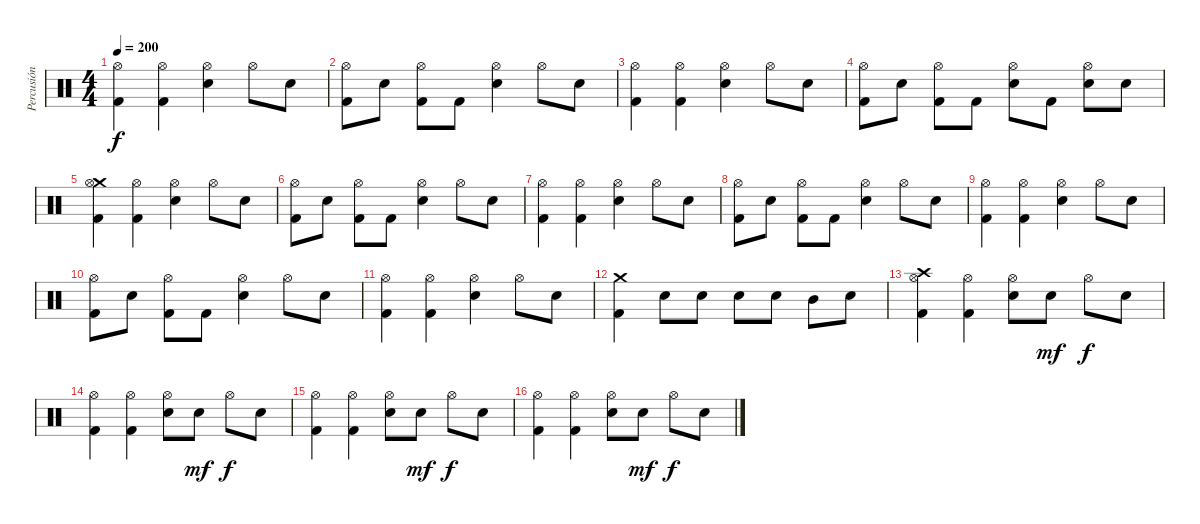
\track ("Percusión" "Percusión") {instrument percussion}
\staff {score}
\articulation defaults
\ts (4 4)
\tempo 200
\clef neutral
\ks c
("Hi-Hat (open)" "Kick (hit) 2").4{dy f} ("Hi-Hat (open)" "Kick (hit) 2").4 ("Hi-Hat (open)" "Electric Snare (hit)").4 "Hi-Hat (open)".8 "Electric Snare (hit)".8 |
("Hi-Hat (open)" "Kick (hit) 2").8 "Electric Snare (hit)".8 ("Hi-Hat (open)" "Kick (hit) 2").8 "Kick (hit) 2".8 ("Hi-Hat (open)" "Electric Snare (hit)").4 "Hi-Hat (open)".8 "Electric Snare (hit)".8 |
("Hi-Hat (open)" "Kick (hit) 2").4 ("Hi-Hat (open)" "Kick (hit) 2").4 ("Hi-Hat (open)" "Electric Snare (hit)").4 "Hi-Hat (open)".8 "Electric Snare (hit)".8 |
("Hi-Hat (open)" "Kick (hit) 2").8 "Electric Snare (hit)".8 ("Hi-Hat (open)" "Kick (hit) 2").8 "Kick (hit) 2".8 ("Hi-Hat (open)" "Electric Snare (hit)").8 "Kick (hit) 2".8 ("Hi-Hat (open)" "Electric Snare (hit)").8 "Electric Snare (hit)".8 |
("Crash medium (hit)" "Hi-Hat (open)" "Kick (hit) 2").4 ("Hi-Hat (open)" "Kick (hit) 2").4 ("Hi-Hat (open)" "Electric Snare (hit)").4 "Hi-Hat (open)".8 "Electric Snare (hit)".8 |
("Hi-Hat (open)" "Kick (hit) 2").8 "Electric Snare (hit)".8 ("Hi-Hat (open)" "Kick (hit) 2").8 "Kick (hit) 2".8 ("Hi-Hat (open)" "Electric Snare (hit)").4 "Hi-Hat (open)".8 "Electric Snare (hit)".8 |
("Hi-Hat (open)" "Kick (hit) 2").4 ("Hi-Hat (open)" "Kick (hit) 2").4 ("Hi-Hat (open)" "Electric Snare (hit)").4 "Hi-Hat (open)".8 "Electric Snare (hit)".8 |
("Hi-Hat (open)" "Kick (hit) 2").8 "Electric Snare (hit)".8 ("Hi-Hat (open)" "Kick (hit) 2").8 "Kick (hit) 2".8 ("Hi-Hat (open)" "Electric Snare (hit)").4 "Hi-Hat (open)".8 "Electric Snare (hit)".8 |
("Hi-Hat (open)" "Kick (hit) 2").4 ("Hi-Hat (open)" "Kick (hit) 2").4 ("Hi-Hat (open)" "Electric Snare (hit)").4 "Hi-Hat (open)".8 "Electric Snare (hit)".8 |
("Hi-Hat (open)" "Kick (hit) 2").8 "Electric Snare (hit)".8 ("Hi-Hat (open)" "Kick (hit) 2").8 "Kick (hit) 2".8 ("Hi-Hat (open)" "Electric Snare (hit)").4 "Hi-Hat (open)".8 "Electric Snare (hit)".8 |
("Hi-Hat (open)" "Kick (hit) 2").4 ("Hi-Hat (open)" "Kick (hit) 2").4 ("Hi-Hat (open)" "Electric Snare (hit)").4 "Hi-Hat (open)".8 "Electric Snare (hit)".8 |
("Crash medium (hit)" "Kick (hit) 2").4 "Electric Snare (hit)".8 "Electric Snare (hit)".8 "Electric Snare (hit)".8 "Electric Snare (hit)".8 "Mid Tom (hit)".8 "Electric Snare (hit)".8 |
("Crash high (hit)" "Hi-Hat (open)" "Kick (hit) 2").4 ("Hi-Hat (open)" "Kick (hit) 2").4 ("Hi-Hat (open)" "Electric Snare (hit)").8 "Electric Snare (hit)".8{dy mf} "Hi-Hat (open)".8{dy f} "Electric Snare (hit)".8 |
("Hi-Hat (open)" "Kick (hit) 2").4 ("Hi-Hat (open)" "Kick (hit) 2").4 ("Hi-Hat (open)" "Electric Snare (hit)").8 "Electric Snare (hit)".8{dy mf} "Hi-Hat (open)".8{dy f} "Electric Snare (hit)".8 |
("Hi-Hat (open)" "Kick (hit) 2").4 ("Hi-Hat (open)" "Kick (hit) 2").4 ("Hi-Hat (open)" "Electric Snare (hit)").8 "Electric Snare (hit)".8{dy mf} "Hi-Hat (open)".8{dy f} "Electric Snare (hit)".8 |
("Hi-Hat (open)" "Kick (hit) 2").4 ("Hi-Hat (open)" "Kick (hit) 2").4 ("Hi-Hat (open)" "Electric Snare (hit)").8 "Electric Snare (hit)".8{dy mf} "Hi-Hat (open)".8{dy f} "Electric Snare (hit)".8
